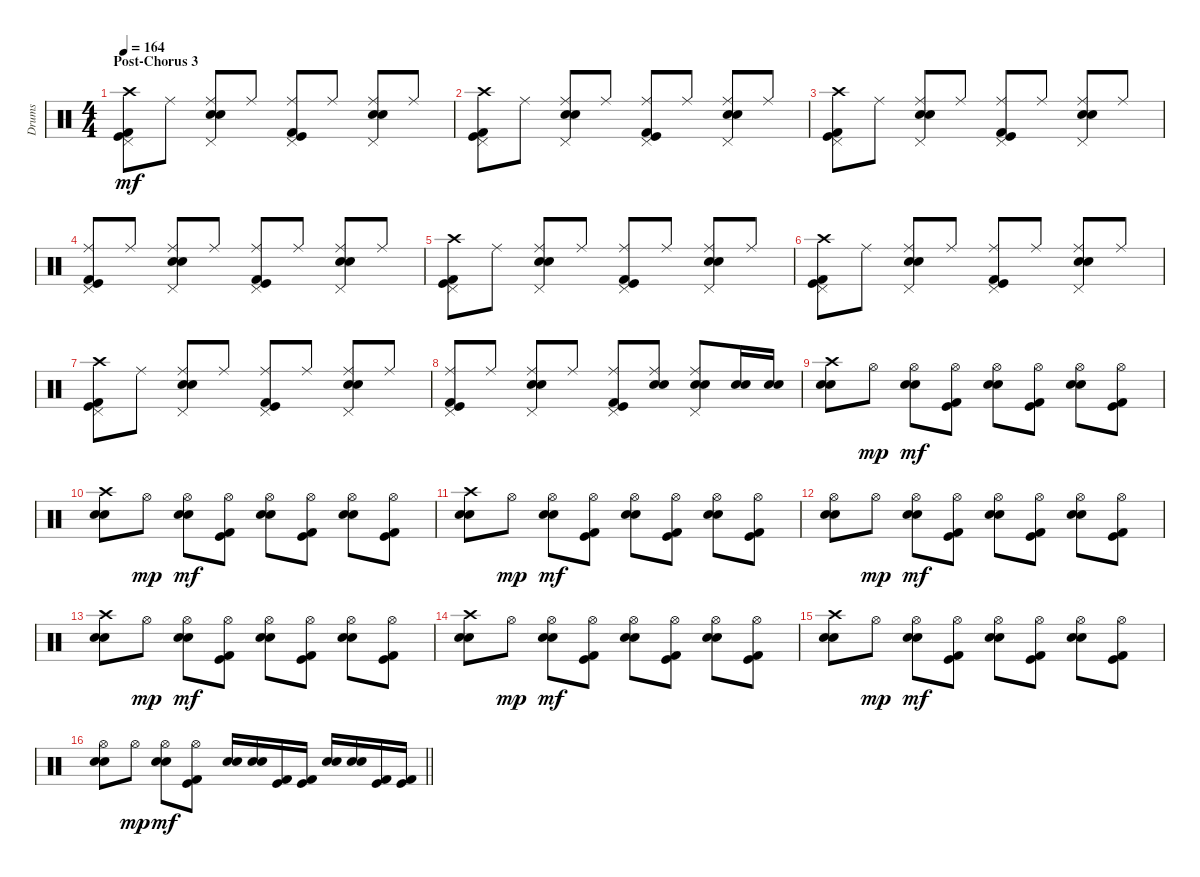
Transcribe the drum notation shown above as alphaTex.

\track ("Drums" "Drums") {instrument percussion}
\staff {score}
\articulation defaults
\ts (4 4)
\section ("" "Post-Chorus 3")
\tempo 164
\clef neutral
\ks c
("Crash high (hit)" "Pedal Hi-Hat (hit)" "Kick (hit) 2" "Kick (hit)").8{dy mf} "Ride (middle)".8 ("Ride (middle)" "Pedal Hi-Hat (hit)" "Snare (hit) 2" "Electric Snare (hit)").8 "Ride (middle)".8 ("Ride (middle)" "Pedal Hi-Hat (hit)" "Kick (hit) 2" "Kick (hit)").8 "Ride (middle)".8 ("Ride (middle)" "Pedal Hi-Hat (hit)" "Snare (hit) 2" "Electric Snare (hit)").8 "Ride (middle)".8 |
("Crash high (hit)" "Pedal Hi-Hat (hit)" "Kick (hit) 2" "Kick (hit)").8 "Ride (middle)".8 ("Ride (middle)" "Pedal Hi-Hat (hit)" "Snare (hit) 2" "Electric Snare (hit)").8 "Ride (middle)".8 ("Ride (middle)" "Pedal Hi-Hat (hit)" "Kick (hit) 2" "Kick (hit)").8 "Ride (middle)".8 ("Ride (middle)" "Pedal Hi-Hat (hit)" "Snare (hit) 2" "Electric Snare (hit)").8 "Ride (middle)".8 |
("Crash high (hit)" "Pedal Hi-Hat (hit)" "Kick (hit) 2" "Kick (hit)").8 "Ride (middle)".8 ("Ride (middle)" "Pedal Hi-Hat (hit)" "Snare (hit) 2" "Electric Snare (hit)").8 "Ride (middle)".8 ("Ride (middle)" "Pedal Hi-Hat (hit)" "Kick (hit) 2" "Kick (hit)").8 "Ride (middle)".8 ("Ride (middle)" "Pedal Hi-Hat (hit)" "Snare (hit) 2" "Electric Snare (hit)").8 "Ride (middle)".8 |
("Ride (middle)" "Pedal Hi-Hat (hit)" "Kick (hit) 2" "Kick (hit)").8 "Ride (middle)".8 ("Ride (middle)" "Pedal Hi-Hat (hit)" "Snare (hit) 2" "Electric Snare (hit)").8 "Ride (middle)".8 ("Ride (middle)" "Pedal Hi-Hat (hit)" "Kick (hit) 2" "Kick (hit)").8 "Ride (middle)".8 ("Ride (middle)" "Pedal Hi-Hat (hit)" "Snare (hit) 2" "Electric Snare (hit)").8 "Ride (middle)".8 |
("Crash high (hit)" "Pedal Hi-Hat (hit)" "Kick (hit) 2" "Kick (hit)").8 "Ride (middle)".8 ("Ride (middle)" "Pedal Hi-Hat (hit)" "Snare (hit) 2" "Electric Snare (hit)").8 "Ride (middle)".8 ("Ride (middle)" "Pedal Hi-Hat (hit)" "Kick (hit) 2" "Kick (hit)").8 "Ride (middle)".8 ("Ride (middle)" "Pedal Hi-Hat (hit)" "Snare (hit) 2" "Electric Snare (hit)").8 "Ride (middle)".8 |
("Crash high (hit)" "Pedal Hi-Hat (hit)" "Kick (hit) 2" "Kick (hit)").8 "Ride (middle)".8 ("Ride (middle)" "Pedal Hi-Hat (hit)" "Snare (hit) 2" "Electric Snare (hit)").8 "Ride (middle)".8 ("Ride (middle)" "Pedal Hi-Hat (hit)" "Kick (hit) 2" "Kick (hit)").8 "Ride (middle)".8 ("Ride (middle)" "Pedal Hi-Hat (hit)" "Snare (hit) 2" "Electric Snare (hit)").8 "Ride (middle)".8 |
("Crash high (hit)" "Pedal Hi-Hat (hit)" "Kick (hit) 2" "Kick (hit)").8 "Ride (middle)".8 ("Ride (middle)" "Pedal Hi-Hat (hit)" "Snare (hit) 2" "Electric Snare (hit)").8 "Ride (middle)".8 ("Ride (middle)" "Pedal Hi-Hat (hit)" "Kick (hit) 2" "Kick (hit)").8 "Ride (middle)".8 ("Ride (middle)" "Pedal Hi-Hat (hit)" "Snare (hit) 2" "Electric Snare (hit)").8 "Ride (middle)".8 |
("Ride (middle)" "Pedal Hi-Hat (hit)" "Kick (hit) 2" "Kick (hit)").8 "Ride (middle)".8 ("Ride (middle)" "Pedal Hi-Hat (hit)" "Snare (hit) 2" "Electric Snare (hit)").8 "Ride (middle)".8 ("Ride (middle)" "Pedal Hi-Hat (hit)" "Kick (hit) 2" "Kick (hit)").8 ("Ride (middle)" "Snare (hit) 2" "Electric Snare (hit)").8 ("Ride (middle)" "Pedal Hi-Hat (hit)" "Snare (hit) 2" "Electric Snare (hit)").8 ("Snare (hit) 2" "Electric Snare (hit)").16 ("Snare (hit) 2" "Electric Snare (hit)").16 |
("Crash high (hit)" "Snare (hit) 2" "Electric Snare (hit)").8 "Hi-Hat (open)".8{dy mp} ("Hi-Hat (open)" "Snare (hit) 2" "Electric Snare (hit)").8{dy mf} ("Hi-Hat (open)" "Kick (hit) 2" "Kick (hit)").8 ("Hi-Hat (open)" "Snare (hit) 2" "Electric Snare (hit)").8 ("Hi-Hat (open)" "Kick (hit) 2" "Kick (hit)").8 ("Hi-Hat (open)" "Snare (hit) 2" "Electric Snare (hit)").8 ("Hi-Hat (open)" "Kick (hit) 2" "Kick (hit)").8 |
("Crash high (hit)" "Snare (hit) 2" "Electric Snare (hit)").8 "Hi-Hat (open)".8{dy mp} ("Hi-Hat (open)" "Snare (hit) 2" "Electric Snare (hit)").8{dy mf} ("Hi-Hat (open)" "Kick (hit) 2" "Kick (hit)").8 ("Hi-Hat (open)" "Snare (hit) 2" "Electric Snare (hit)").8 ("Hi-Hat (open)" "Kick (hit) 2" "Kick (hit)").8 ("Hi-Hat (open)" "Snare (hit) 2" "Electric Snare (hit)").8 ("Hi-Hat (open)" "Kick (hit) 2" "Kick (hit)").8 |
("Crash high (hit)" "Snare (hit) 2" "Electric Snare (hit)").8 "Hi-Hat (open)".8{dy mp} ("Hi-Hat (open)" "Snare (hit) 2" "Electric Snare (hit)").8{dy mf} ("Hi-Hat (open)" "Kick (hit) 2" "Kick (hit)").8 ("Hi-Hat (open)" "Snare (hit) 2" "Electric Snare (hit)").8 ("Hi-Hat (open)" "Kick (hit) 2" "Kick (hit)").8 ("Hi-Hat (open)" "Snare (hit) 2" "Electric Snare (hit)").8 ("Hi-Hat (open)" "Kick (hit) 2" "Kick (hit)").8 |
("Hi-Hat (open)" "Snare (hit) 2" "Electric Snare (hit)").8 "Hi-Hat (open)".8{dy mp} ("Hi-Hat (open)" "Snare (hit) 2" "Electric Snare (hit)").8{dy mf} ("Hi-Hat (open)" "Kick (hit) 2" "Kick (hit)").8 ("Hi-Hat (open)" "Snare (hit) 2" "Electric Snare (hit)").8 ("Hi-Hat (open)" "Kick (hit) 2" "Kick (hit)").8 ("Hi-Hat (open)" "Snare (hit) 2" "Electric Snare (hit)").8 ("Hi-Hat (open)" "Kick (hit) 2" "Kick (hit)").8 |
("Crash high (hit)" "Snare (hit) 2" "Electric Snare (hit)").8 "Hi-Hat (open)".8{dy mp} ("Hi-Hat (open)" "Snare (hit) 2" "Electric Snare (hit)").8{dy mf} ("Hi-Hat (open)" "Kick (hit) 2" "Kick (hit)").8 ("Hi-Hat (open)" "Snare (hit) 2" "Electric Snare (hit)").8 ("Hi-Hat (open)" "Kick (hit) 2" "Kick (hit)").8 ("Hi-Hat (open)" "Snare (hit) 2" "Electric Snare (hit)").8 ("Hi-Hat (open)" "Kick (hit) 2" "Kick (hit)").8 |
("Crash high (hit)" "Snare (hit) 2" "Electric Snare (hit)").8 "Hi-Hat (open)".8{dy mp} ("Hi-Hat (open)" "Snare (hit) 2" "Electric Snare (hit)").8{dy mf} ("Hi-Hat (open)" "Kick (hit) 2" "Kick (hit)").8 ("Hi-Hat (open)" "Snare (hit) 2" "Electric Snare (hit)").8 ("Hi-Hat (open)" "Kick (hit) 2" "Kick (hit)").8 ("Hi-Hat (open)" "Snare (hit) 2" "Electric Snare (hit)").8 ("Hi-Hat (open)" "Kick (hit) 2" "Kick (hit)").8 |
("Crash high (hit)" "Snare (hit) 2" "Electric Snare (hit)").8 "Hi-Hat (open)".8{dy mp} ("Hi-Hat (open)" "Snare (hit) 2" "Electric Snare (hit)").8{dy mf} ("Hi-Hat (open)" "Kick (hit) 2" "Kick (hit)").8 ("Hi-Hat (open)" "Snare (hit) 2" "Electric Snare (hit)").8 ("Hi-Hat (open)" "Kick (hit) 2" "Kick (hit)").8 ("Hi-Hat (open)" "Snare (hit) 2" "Electric Snare (hit)").8 ("Hi-Hat (open)" "Kick (hit) 2" "Kick (hit)").8 |
\barLineRight lightlight
("Hi-Hat (open)" "Snare (hit) 2" "Electric Snare (hit)").8 "Hi-Hat (open)".8{dy mp} ("Hi-Hat (open)" "Snare (hit) 2" "Electric Snare (hit)").8{dy mf} ("Hi-Hat (open)" "Kick (hit) 2" "Kick (hit)").8 ("Snare (hit) 2" "Electric Snare (hit)").16 ("Snare (hit) 2" "Electric Snare (hit)").16 ("Kick (hit) 2" "Kick (hit)").16 ("Kick (hit) 2" "Kick (hit)").16 ("Snare (hit) 2" "Electric Snare (hit)").16 ("Snare (hit) 2" "Electric Snare (hit)").16 ("Kick (hit) 2" "Kick (hit)").16 ("Kick (hit) 2" "Kick (hit)").16
